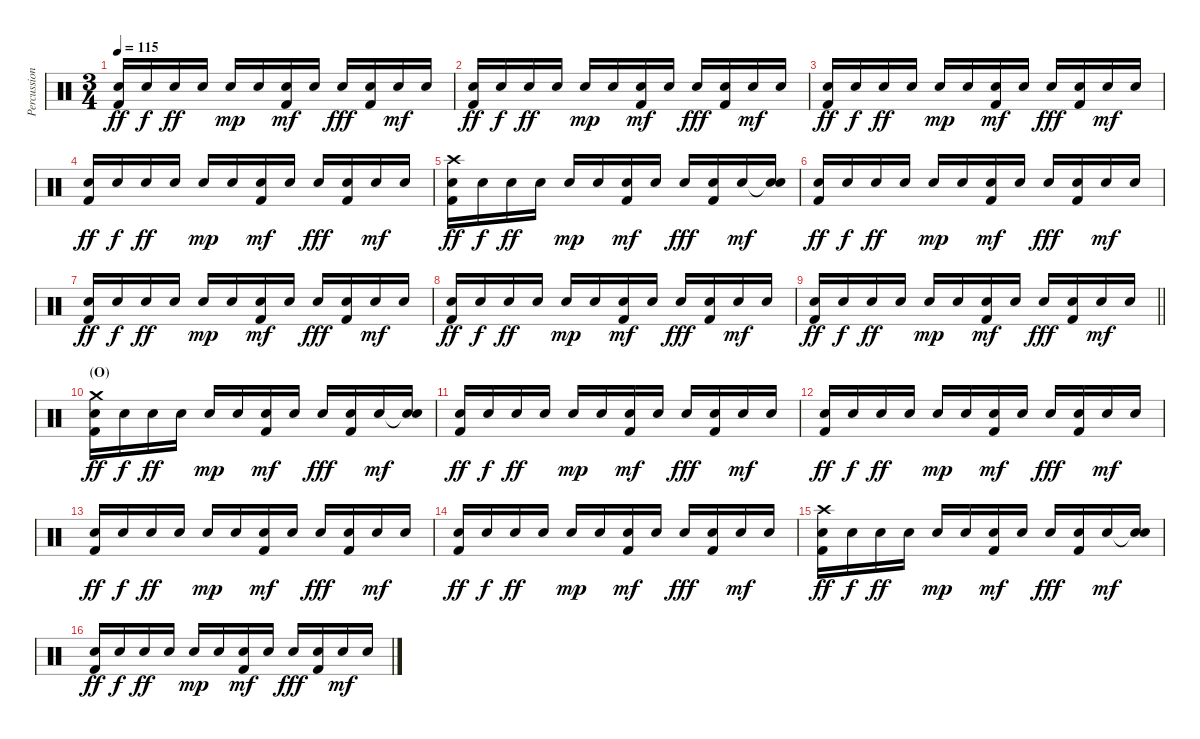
\track ("Percussion 1" "Percussion") {instrument percussion}
\staff {score}
\articulation defaults
\ts (3 4)
\tempo 115
\clef neutral
\ks c
("Snare (hit) 2" "Kick (hit) 2").16{dy ff} "Snare (hit) 2".16{dy f} "Snare (hit) 2".16{dy ff} "Snare (hit) 2".16 "Snare (hit) 2".16{dy mp} "Snare (hit) 2".16 ("Snare (hit) 2" "Kick (hit) 2").16{dy mf} "Snare (hit) 2".16 "Snare (hit) 2".16{dy fff} ("Snare (hit) 2" "Kick (hit) 2").16 "Snare (hit) 2".16{dy mf} "Snare (hit) 2".16 |
("Snare (hit) 2" "Kick (hit) 2").16{dy ff} "Snare (hit) 2".16{dy f} "Snare (hit) 2".16{dy ff} "Snare (hit) 2".16 "Snare (hit) 2".16{dy mp} "Snare (hit) 2".16 ("Snare (hit) 2" "Kick (hit) 2").16{dy mf} "Snare (hit) 2".16 "Snare (hit) 2".16{dy fff} ("Snare (hit) 2" "Kick (hit) 2").16 "Snare (hit) 2".16{dy mf} "Snare (hit) 2".16 |
("Snare (hit) 2" "Kick (hit) 2").16{dy ff} "Snare (hit) 2".16{dy f} "Snare (hit) 2".16{dy ff} "Snare (hit) 2".16 "Snare (hit) 2".16{dy mp} "Snare (hit) 2".16 ("Snare (hit) 2" "Kick (hit) 2").16{dy mf} "Snare (hit) 2".16 "Snare (hit) 2".16{dy fff} ("Snare (hit) 2" "Kick (hit) 2").16 "Snare (hit) 2".16{dy mf} "Snare (hit) 2".16 |
("Snare (hit) 2" "Kick (hit) 2").16{dy ff} "Snare (hit) 2".16{dy f} "Snare (hit) 2".16{dy ff} "Snare (hit) 2".16 "Snare (hit) 2".16{dy mp} "Snare (hit) 2".16 ("Snare (hit) 2" "Kick (hit) 2").16{dy mf} "Snare (hit) 2".16 "Snare (hit) 2".16{dy fff} ("Snare (hit) 2" "Kick (hit) 2").16 "Snare (hit) 2".16{dy mf} "Snare (hit) 2".16 |
("Crash high (hit)" "Snare (hit) 2" "Kick (hit) 2").16{dy ff} "Snare (hit) 2".16{dy f} "Snare (hit) 2".16{dy ff} "Snare (hit) 2".16 "Snare (hit) 2".16{dy mp} "Snare (hit) 2".16 ("Snare (hit) 2" "Kick (hit) 2").16{dy mf} "Snare (hit) 2".16 "Snare (hit) 2".16{dy fff} ("Snare (hit) 2" "Kick (hit) 2").16 "Snare (hit) 2".16{dy mf} ("Snare (hit)"{t} "Snare (hit) 2").16 |
("Snare (hit) 2" "Kick (hit) 2").16{dy ff} "Snare (hit) 2".16{dy f} "Snare (hit) 2".16{dy ff} "Snare (hit) 2".16 "Snare (hit) 2".16{dy mp} "Snare (hit) 2".16 ("Snare (hit) 2" "Kick (hit) 2").16{dy mf} "Snare (hit) 2".16 "Snare (hit) 2".16{dy fff} ("Snare (hit) 2" "Kick (hit) 2").16 "Snare (hit) 2".16{dy mf} "Snare (hit) 2".16 |
("Snare (hit) 2" "Kick (hit) 2").16{dy ff} "Snare (hit) 2".16{dy f} "Snare (hit) 2".16{dy ff} "Snare (hit) 2".16 "Snare (hit) 2".16{dy mp} "Snare (hit) 2".16 ("Snare (hit) 2" "Kick (hit) 2").16{dy mf} "Snare (hit) 2".16 "Snare (hit) 2".16{dy fff} ("Snare (hit) 2" "Kick (hit) 2").16 "Snare (hit) 2".16{dy mf} "Snare (hit) 2".16 |
("Snare (hit) 2" "Kick (hit) 2").16{dy ff} "Snare (hit) 2".16{dy f} "Snare (hit) 2".16{dy ff} "Snare (hit) 2".16 "Snare (hit) 2".16{dy mp} "Snare (hit) 2".16 ("Snare (hit) 2" "Kick (hit) 2").16{dy mf} "Snare (hit) 2".16 "Snare (hit) 2".16{dy fff} ("Snare (hit) 2" "Kick (hit) 2").16 "Snare (hit) 2".16{dy mf} "Snare (hit) 2".16 |
\barLineRight lightlight
("Snare (hit) 2" "Kick (hit) 2").16{dy ff} "Snare (hit) 2".16{dy f} "Snare (hit) 2".16{dy ff} "Snare (hit) 2".16 "Snare (hit) 2".16{dy mp} "Snare (hit) 2".16 ("Snare (hit) 2" "Kick (hit) 2").16{dy mf} "Snare (hit) 2".16 "Snare (hit) 2".16{dy fff} ("Snare (hit) 2" "Kick (hit) 2").16 "Snare (hit) 2".16{dy mf} "Snare (hit) 2".16 |
\section ("" "(O)")
("Crash medium (hit)" "Snare (hit) 2" "Kick (hit) 2").16{dy ff} "Snare (hit) 2".16{dy f} "Snare (hit) 2".16{dy ff} "Snare (hit) 2".16 "Snare (hit) 2".16{dy mp} "Snare (hit) 2".16 ("Snare (hit) 2" "Kick (hit) 2").16{dy mf} "Snare (hit) 2".16 "Snare (hit) 2".16{dy fff} ("Snare (hit) 2" "Kick (hit) 2").16 "Snare (hit) 2".16{dy mf} ("Snare (hit)"{t} "Snare (hit) 2").16 |
("Snare (hit) 2" "Kick (hit) 2").16{dy ff} "Snare (hit) 2".16{dy f} "Snare (hit) 2".16{dy ff} "Snare (hit) 2".16 "Snare (hit) 2".16{dy mp} "Snare (hit) 2".16 ("Snare (hit) 2" "Kick (hit) 2").16{dy mf} "Snare (hit) 2".16 "Snare (hit) 2".16{dy fff} ("Snare (hit) 2" "Kick (hit) 2").16 "Snare (hit) 2".16{dy mf} "Snare (hit) 2".16 |
("Snare (hit) 2" "Kick (hit) 2").16{dy ff} "Snare (hit) 2".16{dy f} "Snare (hit) 2".16{dy ff} "Snare (hit) 2".16 "Snare (hit) 2".16{dy mp} "Snare (hit) 2".16 ("Snare (hit) 2" "Kick (hit) 2").16{dy mf} "Snare (hit) 2".16 "Snare (hit) 2".16{dy fff} ("Snare (hit) 2" "Kick (hit) 2").16 "Snare (hit) 2".16{dy mf} "Snare (hit) 2".16 |
("Snare (hit) 2" "Kick (hit) 2").16{dy ff} "Snare (hit) 2".16{dy f} "Snare (hit) 2".16{dy ff} "Snare (hit) 2".16 "Snare (hit) 2".16{dy mp} "Snare (hit) 2".16 ("Snare (hit) 2" "Kick (hit) 2").16{dy mf} "Snare (hit) 2".16 "Snare (hit) 2".16{dy fff} ("Snare (hit) 2" "Kick (hit) 2").16 "Snare (hit) 2".16{dy mf} "Snare (hit) 2".16 |
("Snare (hit) 2" "Kick (hit) 2").16{dy ff} "Snare (hit) 2".16{dy f} "Snare (hit) 2".16{dy ff} "Snare (hit) 2".16 "Snare (hit) 2".16{dy mp} "Snare (hit) 2".16 ("Snare (hit) 2" "Kick (hit) 2").16{dy mf} "Snare (hit) 2".16 "Snare (hit) 2".16{dy fff} ("Snare (hit) 2" "Kick (hit) 2").16 "Snare (hit) 2".16{dy mf} "Snare (hit) 2".16 |
("Crash high (hit)" "Snare (hit) 2" "Kick (hit) 2").16{dy ff} "Snare (hit) 2".16{dy f} "Snare (hit) 2".16{dy ff} "Snare (hit) 2".16 "Snare (hit) 2".16{dy mp} "Snare (hit) 2".16 ("Snare (hit) 2" "Kick (hit) 2").16{dy mf} "Snare (hit) 2".16 "Snare (hit) 2".16{dy fff} ("Snare (hit) 2" "Kick (hit) 2").16 "Snare (hit) 2".16{dy mf} ("Snare (hit)"{t} "Snare (hit) 2").16 |
("Snare (hit) 2" "Kick (hit) 2").16{dy ff} "Snare (hit) 2".16{dy f} "Snare (hit) 2".16{dy ff} "Snare (hit) 2".16 "Snare (hit) 2".16{dy mp} "Snare (hit) 2".16 ("Snare (hit) 2" "Kick (hit) 2").16{dy mf} "Snare (hit) 2".16 "Snare (hit) 2".16{dy fff} ("Snare (hit) 2" "Kick (hit) 2").16 "Snare (hit) 2".16{dy mf} "Snare (hit) 2".16
